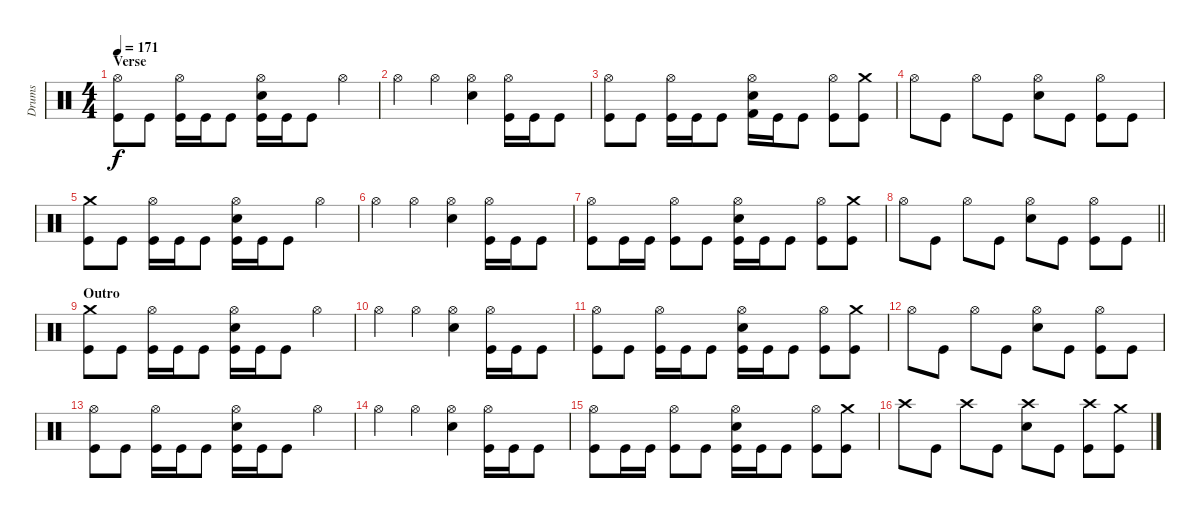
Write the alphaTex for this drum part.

\track ("Drums" "Drums") {instrument percussion}
\staff {score}
\articulation defaults
\ts (4 4)
\section ("" "Verse")
\tempo 171
\clef neutral
\ks c
("Hi-Hat (open)" "Kick (hit)").8{dy f} "Kick (hit)".8 ("Hi-Hat (open)" "Kick (hit)").16 "Kick (hit)".16 "Kick (hit)".8 ("Hi-Hat (open)" "Snare (hit) 2" "Kick (hit)").16 "Kick (hit)".16 "Kick (hit)".8 "Hi-Hat (open)".4 |
"Hi-Hat (open)".4 "Hi-Hat (open)".4 ("Hi-Hat (open)" "Snare (hit) 2").4 ("Hi-Hat (open)" "Kick (hit)").16 "Kick (hit)".16 "Kick (hit)".8 |
("Hi-Hat (open)" "Kick (hit)").8 "Kick (hit)".8 ("Hi-Hat (open)" "Kick (hit)").16 "Kick (hit)".16 "Kick (hit)".8 ("Hi-Hat (open)" "Snare (hit) 2" "Kick (hit) 2").16 "Kick (hit)".16 "Kick (hit)".8 ("Hi-Hat (open)" "Kick (hit)").8 ("Crash medium (hit)" "Kick (hit)").8 |
"Hi-Hat (open)".8 "Kick (hit)".8 "Hi-Hat (open)".8 "Kick (hit)".8 ("Hi-Hat (open)" "Snare (hit) 2").8 "Kick (hit)".8 ("Hi-Hat (open)" "Kick (hit)").8 "Kick (hit)".8 |
("Crash medium (hit)" "Kick (hit)").8 "Kick (hit)".8 ("Hi-Hat (open)" "Kick (hit)").16 "Kick (hit)".16 "Kick (hit)".8 ("Hi-Hat (open)" "Snare (hit) 2" "Kick (hit)").16 "Kick (hit)".16 "Kick (hit)".8 "Hi-Hat (open)".4 |
"Hi-Hat (open)".4 "Hi-Hat (open)".4 ("Hi-Hat (open)" "Snare (hit) 2").4 ("Hi-Hat (open)" "Kick (hit)").16 "Kick (hit)".16 "Kick (hit)".8 |
("Hi-Hat (open)" "Kick (hit)").8 "Kick (hit)".16 "Kick (hit)".16 ("Hi-Hat (open)" "Kick (hit)").8 "Kick (hit)".8 ("Hi-Hat (open)" "Snare (hit) 2" "Kick (hit)").16 "Kick (hit)".16 "Kick (hit)".8 ("Hi-Hat (open)" "Kick (hit)").8 ("Crash medium (hit)" "Kick (hit)").8 |
\barLineRight lightlight "Hi-Hat (open)".8 "Kick (hit)".8 "Hi-Hat (open)".8 "Kick (hit)".8
("Hi-Hat (open)" "Snare (hit) 2").8 "Kick (hit)".8 ("Hi-Hat (open)" "Kick (hit)").8 "Kick (hit)".8 |
\section ("" "Outro")
("Crash medium (hit)" "Kick (hit)").8 "Kick (hit)".8 ("Hi-Hat (open)" "Kick (hit)").16 "Kick (hit)".16 "Kick (hit)".8 ("Hi-Hat (open)" "Snare (hit) 2" "Kick (hit)").16 "Kick (hit)".16 "Kick (hit)".8 "Hi-Hat (open)".4 |
"Hi-Hat (open)".4 "Hi-Hat (open)".4 ("Hi-Hat (open)" "Snare (hit) 2").4 ("Hi-Hat (open)" "Kick (hit)").16 "Kick (hit)".16 "Kick (hit)".8 |
("Hi-Hat (open)" "Kick (hit)").8 "Kick (hit)".8 ("Hi-Hat (open)" "Kick (hit)").16 "Kick (hit)".16 "Kick (hit)".8 ("Hi-Hat (open)" "Snare (hit) 2" "Kick (hit)").16 "Kick (hit)".16 "Kick (hit)".8 ("Hi-Hat (open)" "Kick (hit)").8 ("Crash medium (hit)" "Kick (hit)").8 |
"Hi-Hat (open)".8 "Kick (hit)".8 "Hi-Hat (open)".8 "Kick (hit)".8 ("Hi-Hat (open)" "Snare (hit) 2").8 "Kick (hit)".8 ("Hi-Hat (open)" "Kick (hit)").8 "Kick (hit)".8 |
("Hi-Hat (open)" "Kick (hit)").8 "Kick (hit)".8 ("Hi-Hat (open)" "Kick (hit)").16 "Kick (hit)".16 "Kick (hit)".8 ("Hi-Hat (open)" "Snare (hit) 2" "Kick (hit)").16 "Kick (hit)".16 "Kick (hit)".8 "Hi-Hat (open)".4 |
"Hi-Hat (open)".4 "Hi-Hat (open)".4 ("Hi-Hat (open)" "Snare (hit) 2").4 ("Hi-Hat (open)" "Kick (hit)").16 "Kick (hit)".16 "Kick (hit)".8 |
("Hi-Hat (open)" "Kick (hit)").8 "Kick (hit)".16 "Kick (hit)".16 ("Hi-Hat (open)" "Kick (hit)").8 "Kick (hit)".8 ("Hi-Hat (open)" "Snare (hit) 2" "Kick (hit)").16 "Kick (hit)".16 "Kick (hit)".8 ("Hi-Hat (open)" "Kick (hit)").8 ("Crash medium (hit)" "Kick (hit)").8 |
"Crash high (hit)".8 "Kick (hit)".8 "Crash high (hit)".8 "Kick (hit)".8 ("Crash high (hit)" "Snare (hit) 2").8 "Kick (hit)".8 ("Crash high (hit)" "Kick (hit)").8 ("Crash medium (hit)" "Kick (hit)").8
